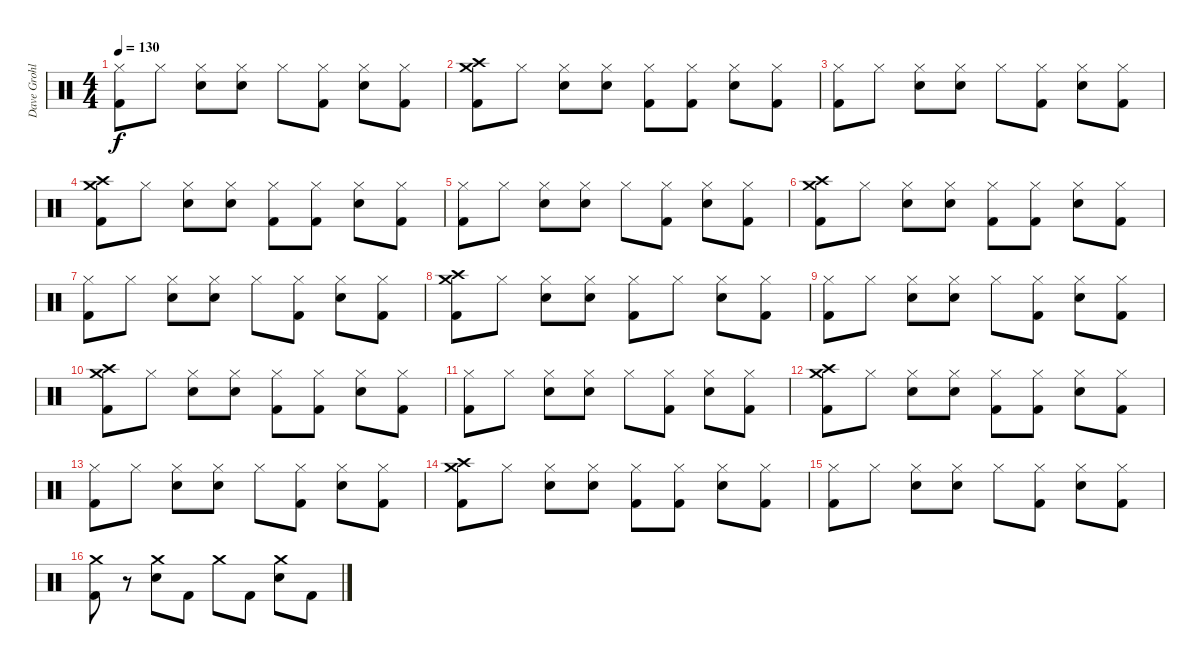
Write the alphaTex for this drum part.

\track ("Dave Grohl" "Dave Grohl") {instrument percussion}
\staff {score}
\articulation defaults
\ts (4 4)
\tempo 130
\clef neutral
\ks c
("Hi-Hat (closed)" "Kick (hit) 2").8{dy f} "Hi-Hat (closed)".8 ("Hi-Hat (closed)" "Snare (hit) 2").8 ("Hi-Hat (closed)" "Snare (hit) 2").8 "Hi-Hat (closed)".8 ("Hi-Hat (closed)" "Kick (hit) 2").8 ("Hi-Hat (closed)" "Snare (hit) 2").8 ("Hi-Hat (closed)" "Kick (hit) 2").8 |
("Crash high (hit)" "Crash medium (hit)" "Kick (hit) 2").8 "Hi-Hat (closed)".8 ("Hi-Hat (closed)" "Snare (hit) 2").8 ("Hi-Hat (closed)" "Snare (hit) 2").8 ("Hi-Hat (closed)" "Kick (hit) 2").8 ("Hi-Hat (closed)" "Kick (hit) 2").8 ("Hi-Hat (closed)" "Snare (hit) 2").8 ("Hi-Hat (closed)" "Kick (hit) 2").8 |
("Hi-Hat (closed)" "Kick (hit) 2").8 "Hi-Hat (closed)".8 ("Hi-Hat (closed)" "Snare (hit) 2").8 ("Hi-Hat (closed)" "Snare (hit) 2").8 "Hi-Hat (closed)".8 ("Hi-Hat (closed)" "Kick (hit) 2").8 ("Hi-Hat (closed)" "Snare (hit) 2").8 ("Hi-Hat (closed)" "Kick (hit) 2").8 |
("Crash high (hit)" "Crash medium (hit)" "Kick (hit) 2").8 "Hi-Hat (closed)".8 ("Hi-Hat (closed)" "Snare (hit) 2").8 ("Hi-Hat (closed)" "Snare (hit) 2").8 ("Hi-Hat (closed)" "Kick (hit) 2").8 ("Hi-Hat (closed)" "Kick (hit) 2").8 ("Hi-Hat (closed)" "Snare (hit) 2").8 ("Hi-Hat (closed)" "Kick (hit) 2").8 |
("Hi-Hat (closed)" "Kick (hit) 2").8 "Hi-Hat (closed)".8 ("Hi-Hat (closed)" "Snare (hit) 2").8 ("Hi-Hat (closed)" "Snare (hit) 2").8 "Hi-Hat (closed)".8 ("Hi-Hat (closed)" "Kick (hit) 2").8 ("Hi-Hat (closed)" "Snare (hit) 2").8 ("Hi-Hat (closed)" "Kick (hit) 2").8 |
("Crash high (hit)" "Crash medium (hit)" "Kick (hit) 2").8 "Hi-Hat (closed)".8 ("Hi-Hat (closed)" "Snare (hit) 2").8 ("Hi-Hat (closed)" "Snare (hit) 2").8 ("Hi-Hat (closed)" "Kick (hit) 2").8 ("Hi-Hat (closed)" "Kick (hit) 2").8 ("Hi-Hat (closed)" "Snare (hit) 2").8 ("Hi-Hat (closed)" "Kick (hit) 2").8 |
("Hi-Hat (closed)" "Kick (hit) 2").8 "Hi-Hat (closed)".8 ("Hi-Hat (closed)" "Snare (hit) 2").8 ("Hi-Hat (closed)" "Snare (hit) 2").8 "Hi-Hat (closed)".8 ("Hi-Hat (closed)" "Kick (hit) 2").8 ("Hi-Hat (closed)" "Snare (hit) 2").8 ("Hi-Hat (closed)" "Kick (hit) 2").8 |
("Crash high (hit)" "Crash medium (hit)" "Kick (hit) 2").8 "Hi-Hat (closed)".8 ("Hi-Hat (closed)" "Snare (hit) 2").8 ("Hi-Hat (closed)" "Snare (hit) 2").8 ("Hi-Hat (closed)" "Kick (hit) 2").8 "Hi-Hat (closed)".8 ("Hi-Hat (closed)" "Snare (hit) 2").8 ("Hi-Hat (closed)" "Kick (hit) 2").8 |
("Hi-Hat (closed)" "Kick (hit) 2").8 "Hi-Hat (closed)".8 ("Hi-Hat (closed)" "Snare (hit) 2").8 ("Hi-Hat (closed)" "Snare (hit) 2").8 "Hi-Hat (closed)".8 ("Hi-Hat (closed)" "Kick (hit) 2").8 ("Hi-Hat (closed)" "Snare (hit) 2").8 ("Hi-Hat (closed)" "Kick (hit) 2").8 |
("Crash high (hit)" "Crash medium (hit)" "Kick (hit) 2").8 "Hi-Hat (closed)".8 ("Hi-Hat (closed)" "Snare (hit) 2").8 ("Hi-Hat (closed)" "Snare (hit) 2").8 ("Hi-Hat (closed)" "Kick (hit) 2").8 ("Hi-Hat (closed)" "Kick (hit) 2").8 ("Hi-Hat (closed)" "Snare (hit) 2").8 ("Hi-Hat (closed)" "Kick (hit) 2").8 |
("Hi-Hat (closed)" "Kick (hit) 2").8 "Hi-Hat (closed)".8 ("Hi-Hat (closed)" "Snare (hit) 2").8 ("Hi-Hat (closed)" "Snare (hit) 2").8 "Hi-Hat (closed)".8 ("Hi-Hat (closed)" "Kick (hit) 2").8 ("Hi-Hat (closed)" "Snare (hit) 2").8 ("Hi-Hat (closed)" "Kick (hit) 2").8 |
("Crash high (hit)" "Crash medium (hit)" "Kick (hit) 2").8 "Hi-Hat (closed)".8 ("Hi-Hat (closed)" "Snare (hit) 2").8 ("Hi-Hat (closed)" "Snare (hit) 2").8 ("Hi-Hat (closed)" "Kick (hit) 2").8 ("Hi-Hat (closed)" "Kick (hit) 2").8 ("Hi-Hat (closed)" "Snare (hit) 2").8 ("Hi-Hat (closed)" "Kick (hit) 2").8 |
("Hi-Hat (closed)" "Kick (hit) 2").8 "Hi-Hat (closed)".8 ("Hi-Hat (closed)" "Snare (hit) 2").8 ("Hi-Hat (closed)" "Snare (hit) 2").8 "Hi-Hat (closed)".8 ("Hi-Hat (closed)" "Kick (hit) 2").8 ("Hi-Hat (closed)" "Snare (hit) 2").8 ("Hi-Hat (closed)" "Kick (hit) 2").8 |
("Crash high (hit)" "Crash medium (hit)" "Kick (hit) 2").8 "Hi-Hat (closed)".8 ("Hi-Hat (closed)" "Snare (hit) 2").8 ("Hi-Hat (closed)" "Snare (hit) 2").8 ("Hi-Hat (closed)" "Kick (hit) 2").8 ("Hi-Hat (closed)" "Kick (hit) 2").8 ("Hi-Hat (closed)" "Snare (hit) 2").8 ("Hi-Hat (closed)" "Kick (hit) 2").8 |
("Hi-Hat (closed)" "Kick (hit) 2").8 "Hi-Hat (closed)".8 ("Hi-Hat (closed)" "Snare (hit) 2").8 ("Hi-Hat (closed)" "Snare (hit) 2").8 "Hi-Hat (closed)".8 ("Hi-Hat (closed)" "Kick (hit) 2").8 ("Hi-Hat (closed)" "Snare (hit) 2").8 ("Hi-Hat (closed)" "Kick (hit) 2").8 |
("Crash medium (hit)" "Kick (hit) 2").8 r.8 ("Crash medium (hit)" "Snare (hit) 2").8 "Kick (hit) 2".8 "Crash medium (hit)".8 "Kick (hit) 2".8 ("Crash medium (hit)" "Snare (hit) 2").8 "Kick (hit) 2".8
